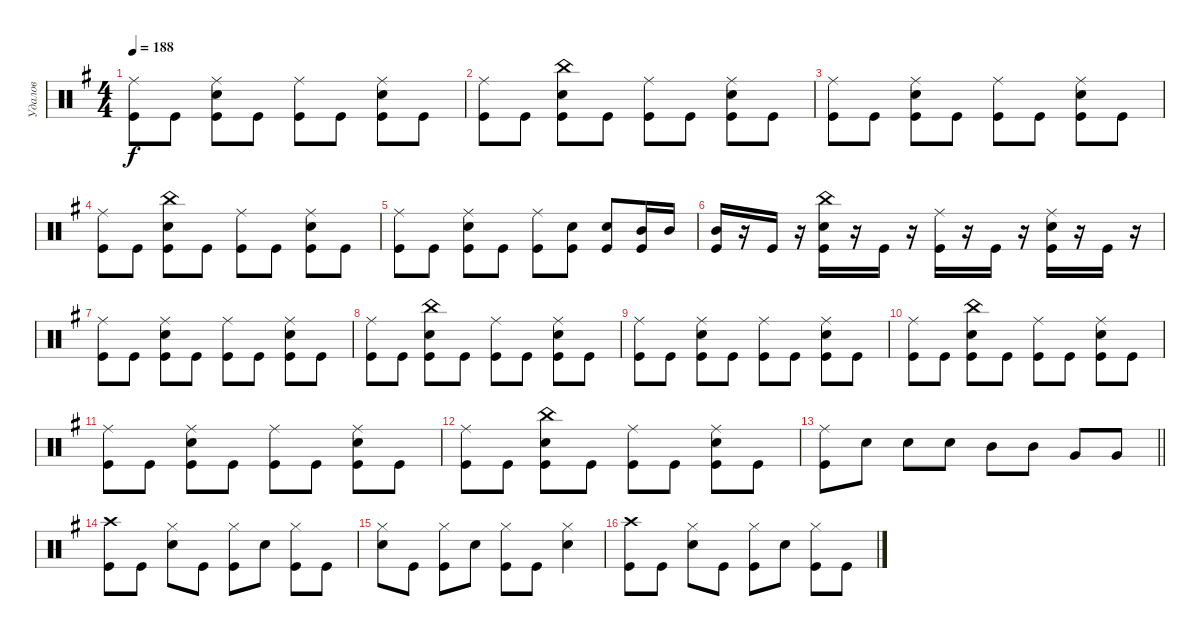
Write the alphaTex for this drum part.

\track ("Удалов" "Удалов") {instrument percussion}
\staff {score}
\articulation defaults
\ts (4 4)
\tempo 188
\clef neutral
\ks g
("Ride (middle)" "Kick (hit)").8{dy f} "Kick (hit)".8 ("Ride (middle)" "Electric Snare (hit)" "Kick (hit)").8 "Kick (hit)".8 ("Ride (middle)" "Kick (hit)").8 "Kick (hit)".8 ("Ride (middle)" "Electric Snare (hit)" "Kick (hit)").8 "Kick (hit)".8 |
("Ride (middle)" "Kick (hit)").8 "Kick (hit)".8 ("China (hit)" "Electric Snare (hit)" "Kick (hit)").8 "Kick (hit)".8 ("Ride (middle)" "Kick (hit)").8 "Kick (hit)".8 ("Ride (middle)" "Electric Snare (hit)" "Kick (hit)").8 "Kick (hit)".8 |
("Ride (middle)" "Kick (hit)").8 "Kick (hit)".8 ("Ride (middle)" "Electric Snare (hit)" "Kick (hit)").8 "Kick (hit)".8 ("Ride (middle)" "Kick (hit)").8 "Kick (hit)".8 ("Ride (middle)" "Electric Snare (hit)" "Kick (hit)").8 "Kick (hit)".8 |
("Ride (middle)" "Kick (hit)").8 "Kick (hit)".8 ("China (hit)" "Electric Snare (hit)" "Kick (hit)").8 "Kick (hit)".8 ("Ride (middle)" "Kick (hit)").8 "Kick (hit)".8 ("Ride (middle)" "Electric Snare (hit)" "Kick (hit)").8 "Kick (hit)".8 |
("Ride (middle)" "Kick (hit)").8 "Kick (hit)".8 ("Ride (middle)" "Electric Snare (hit)" "Kick (hit)").8 "Kick (hit)".8 ("Ride (middle)" "Kick (hit)").8 ("Electric Snare (hit)" "Kick (hit)").8 ("Electric Snare (hit)" "Kick (hit)").8 ("Mid Tom (hit)" "Kick (hit)").16 "Mid Tom (hit)".16 |
("Mid Tom (hit)" "Kick (hit)").16 r.16 "Kick (hit)".16 r.16 ("China (hit)" "Electric Snare (hit)" "Kick (hit)").16 r.16 "Kick (hit)".16 r.16 ("Ride (middle)" "Kick (hit)").16 r.16 "Kick (hit)".16 r.16 ("Ride (middle)" "Electric Snare (hit)" "Kick (hit)").16 r.16 "Kick (hit)".16 r.16 |
("Ride (middle)" "Kick (hit)").8 "Kick (hit)".8 ("Ride (middle)" "Electric Snare (hit)" "Kick (hit)").8 "Kick (hit)".8 ("Ride (middle)" "Kick (hit)").8 "Kick (hit)".8 ("Ride (middle)" "Electric Snare (hit)" "Kick (hit)").8 "Kick (hit)".8 |
("Ride (middle)" "Kick (hit)").8 "Kick (hit)".8 ("China (hit)" "Electric Snare (hit)" "Kick (hit)").8 "Kick (hit)".8 ("Ride (middle)" "Kick (hit)").8 "Kick (hit)".8 ("Ride (middle)" "Electric Snare (hit)" "Kick (hit)").8 "Kick (hit)".8 |
("Ride (middle)" "Kick (hit)").8 "Kick (hit)".8 ("Ride (middle)" "Electric Snare (hit)" "Kick (hit)").8 "Kick (hit)".8 ("Ride (middle)" "Kick (hit)").8 "Kick (hit)".8 ("Ride (middle)" "Electric Snare (hit)" "Kick (hit)").8 "Kick (hit)".8 |
("Ride (middle)" "Kick (hit)").8 "Kick (hit)".8 ("China (hit)" "Electric Snare (hit)" "Kick (hit)").8 "Kick (hit)".8 ("Ride (middle)" "Kick (hit)").8 "Kick (hit)".8 ("Ride (middle)" "Electric Snare (hit)" "Kick (hit)").8 "Kick (hit)".8 |
("Ride (middle)" "Kick (hit)").8 "Kick (hit)".8 ("Ride (middle)" "Electric Snare (hit)" "Kick (hit)").8 "Kick (hit)".8 ("Ride (middle)" "Kick (hit)").8 "Kick (hit)".8 ("Ride (middle)" "Electric Snare (hit)" "Kick (hit)").8 "Kick (hit)".8 |
("Ride (middle)" "Kick (hit)").8 "Kick (hit)".8 ("China (hit)" "Electric Snare (hit)" "Kick (hit)").8 "Kick (hit)".8 ("Ride (middle)" "Kick (hit)").8 "Kick (hit)".8 ("Ride (middle)" "Electric Snare (hit)" "Kick (hit)").8 "Kick (hit)".8 |
\barLineRight lightlight
("Ride (middle)" "Kick (hit)").8 "Electric Snare (hit)".8 "Electric Snare (hit)".8 "Electric Snare (hit)".8 "Mid Tom (hit)".8 "Mid Tom (hit)".8 "Very Low Tom (hit)".8 "Very Low Tom (hit)".8 |
("Crash high (hit)" "Kick (hit)").8 "Kick (hit)".8 ("Hi-Hat (closed)" "Electric Snare (hit)").8 "Kick (hit)".8 ("Hi-Hat (closed)" "Kick (hit)").8 "Electric Snare (hit)".8 ("Kick (hit)" "Hi-Hat (closed)").8 "Kick (hit)".8 |
("Hi-Hat (closed)" "Electric Snare (hit)").8 "Kick (hit)".8 ("Hi-Hat (closed)" "Kick (hit)").8 "Electric Snare (hit)".8 ("Hi-Hat (closed)" "Kick (hit)").8 "Kick (hit)".8 ("Hi-Hat (closed)" "Electric Snare (hit)").4 |
("Crash high (hit)" "Kick (hit)").8 "Kick (hit)".8 ("Hi-Hat (closed)" "Electric Snare (hit)").8 "Kick (hit)".8 ("Hi-Hat (closed)" "Kick (hit)").8 "Electric Snare (hit)".8 ("Kick (hit)" "Hi-Hat (closed)").8 "Kick (hit)".8
